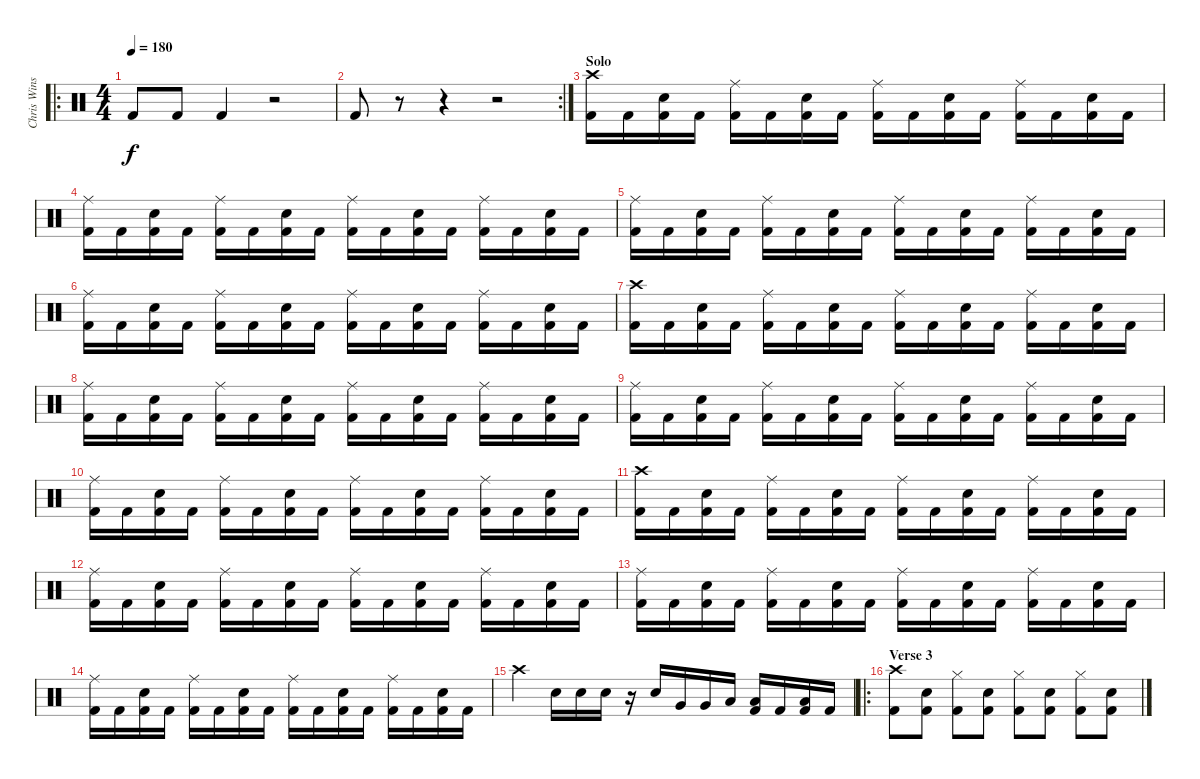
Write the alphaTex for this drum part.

\track ("Chris Winship (Drums)" "Chris Wins") {instrument percussion}
\staff {score}
\articulation defaults
\ro
\ts (4 4)
\tempo 180
\clef neutral
\ks c "Kick (hit) 2".8{dy f} "Kick (hit) 2".8 "Kick (hit) 2".4
r.2 |
\rc 2 "Kick (hit) 2".8
r.8 r.4 r.2 |
\section ("" "Solo")
("Crash high (hit)" "Kick (hit) 2").16 "Kick (hit) 2".16 ("Electric Snare (hit)" "Kick (hit) 2").16 "Kick (hit) 2".16 ("Ride (middle)" "Kick (hit) 2").16 "Kick (hit) 2".16 ("Electric Snare (hit)" "Kick (hit) 2").16 "Kick (hit) 2".16 ("Ride (middle)" "Kick (hit) 2").16 "Kick (hit) 2".16 ("Electric Snare (hit)" "Kick (hit) 2").16 "Kick (hit) 2".16 ("Ride (middle)" "Kick (hit) 2").16 "Kick (hit) 2".16 ("Electric Snare (hit)" "Kick (hit) 2").16 "Kick (hit) 2".16 |
("Ride (middle)" "Kick (hit) 2").16 "Kick (hit) 2".16 ("Electric Snare (hit)" "Kick (hit) 2").16 "Kick (hit) 2".16 ("Ride (middle)" "Kick (hit) 2").16 "Kick (hit) 2".16 ("Electric Snare (hit)" "Kick (hit) 2").16 "Kick (hit) 2".16 ("Ride (middle)" "Kick (hit) 2").16 "Kick (hit) 2".16 ("Electric Snare (hit)" "Kick (hit) 2").16 "Kick (hit) 2".16 ("Ride (middle)" "Kick (hit) 2").16 "Kick (hit) 2".16 ("Electric Snare (hit)" "Kick (hit) 2").16 "Kick (hit) 2".16 |
("Ride (middle)" "Kick (hit) 2").16 "Kick (hit) 2".16 ("Electric Snare (hit)" "Kick (hit) 2").16 "Kick (hit) 2".16 ("Ride (middle)" "Kick (hit) 2").16 "Kick (hit) 2".16 ("Electric Snare (hit)" "Kick (hit) 2").16 "Kick (hit) 2".16 ("Ride (middle)" "Kick (hit) 2").16 "Kick (hit) 2".16 ("Electric Snare (hit)" "Kick (hit) 2").16 "Kick (hit) 2".16 ("Ride (middle)" "Kick (hit) 2").16 "Kick (hit) 2".16 ("Electric Snare (hit)" "Kick (hit) 2").16 "Kick (hit) 2".16 |
("Ride (middle)" "Kick (hit) 2").16 "Kick (hit) 2".16 ("Electric Snare (hit)" "Kick (hit) 2").16 "Kick (hit) 2".16 ("Ride (middle)" "Kick (hit) 2").16 "Kick (hit) 2".16 ("Electric Snare (hit)" "Kick (hit) 2").16 "Kick (hit) 2".16 ("Ride (middle)" "Kick (hit) 2").16 "Kick (hit) 2".16 ("Electric Snare (hit)" "Kick (hit) 2").16 "Kick (hit) 2".16 ("Ride (middle)" "Kick (hit) 2").16 "Kick (hit) 2".16 ("Electric Snare (hit)" "Kick (hit) 2").16 "Kick (hit) 2".16 |
("Crash high (hit)" "Kick (hit) 2").16 "Kick (hit) 2".16 ("Electric Snare (hit)" "Kick (hit) 2").16 "Kick (hit) 2".16 ("Ride (middle)" "Kick (hit) 2").16 "Kick (hit) 2".16 ("Electric Snare (hit)" "Kick (hit) 2").16 "Kick (hit) 2".16 ("Ride (middle)" "Kick (hit) 2").16 "Kick (hit) 2".16 ("Electric Snare (hit)" "Kick (hit) 2").16 "Kick (hit) 2".16 ("Ride (middle)" "Kick (hit) 2").16 "Kick (hit) 2".16 ("Electric Snare (hit)" "Kick (hit) 2").16 "Kick (hit) 2".16 |
("Ride (middle)" "Kick (hit) 2").16 "Kick (hit) 2".16 ("Electric Snare (hit)" "Kick (hit) 2").16 "Kick (hit) 2".16 ("Ride (middle)" "Kick (hit) 2").16 "Kick (hit) 2".16 ("Electric Snare (hit)" "Kick (hit) 2").16 "Kick (hit) 2".16 ("Ride (middle)" "Kick (hit) 2").16 "Kick (hit) 2".16 ("Electric Snare (hit)" "Kick (hit) 2").16 "Kick (hit) 2".16 ("Ride (middle)" "Kick (hit) 2").16 "Kick (hit) 2".16 ("Electric Snare (hit)" "Kick (hit) 2").16 "Kick (hit) 2".16 |
("Ride (middle)" "Kick (hit) 2").16 "Kick (hit) 2".16 ("Electric Snare (hit)" "Kick (hit) 2").16 "Kick (hit) 2".16 ("Ride (middle)" "Kick (hit) 2").16 "Kick (hit) 2".16 ("Electric Snare (hit)" "Kick (hit) 2").16 "Kick (hit) 2".16 ("Ride (middle)" "Kick (hit) 2").16 "Kick (hit) 2".16 ("Electric Snare (hit)" "Kick (hit) 2").16 "Kick (hit) 2".16 ("Ride (middle)" "Kick (hit) 2").16 "Kick (hit) 2".16 ("Electric Snare (hit)" "Kick (hit) 2").16 "Kick (hit) 2".16 |
("Ride (middle)" "Kick (hit) 2").16 "Kick (hit) 2".16 ("Electric Snare (hit)" "Kick (hit) 2").16 "Kick (hit) 2".16 ("Ride (middle)" "Kick (hit) 2").16 "Kick (hit) 2".16 ("Electric Snare (hit)" "Kick (hit) 2").16 "Kick (hit) 2".16 ("Ride (middle)" "Kick (hit) 2").16 "Kick (hit) 2".16 ("Electric Snare (hit)" "Kick (hit) 2").16 "Kick (hit) 2".16 ("Ride (middle)" "Kick (hit) 2").16 "Kick (hit) 2".16 ("Electric Snare (hit)" "Kick (hit) 2").16 "Kick (hit) 2".16 |
("Crash high (hit)" "Kick (hit) 2").16 "Kick (hit) 2".16 ("Electric Snare (hit)" "Kick (hit) 2").16 "Kick (hit) 2".16 ("Ride (middle)" "Kick (hit) 2").16 "Kick (hit) 2".16 ("Electric Snare (hit)" "Kick (hit) 2").16 "Kick (hit) 2".16 ("Ride (middle)" "Kick (hit) 2").16 "Kick (hit) 2".16 ("Electric Snare (hit)" "Kick (hit) 2").16 "Kick (hit) 2".16 ("Ride (middle)" "Kick (hit) 2").16 "Kick (hit) 2".16 ("Electric Snare (hit)" "Kick (hit) 2").16 "Kick (hit) 2".16 |
("Ride (middle)" "Kick (hit) 2").16 "Kick (hit) 2".16 ("Electric Snare (hit)" "Kick (hit) 2").16 "Kick (hit) 2".16 ("Ride (middle)" "Kick (hit) 2").16 "Kick (hit) 2".16 ("Electric Snare (hit)" "Kick (hit) 2").16 "Kick (hit) 2".16 ("Ride (middle)" "Kick (hit) 2").16 "Kick (hit) 2".16 ("Electric Snare (hit)" "Kick (hit) 2").16 "Kick (hit) 2".16 ("Ride (middle)" "Kick (hit) 2").16 "Kick (hit) 2".16 ("Electric Snare (hit)" "Kick (hit) 2").16 "Kick (hit) 2".16 |
("Ride (middle)" "Kick (hit) 2").16 "Kick (hit) 2".16 ("Electric Snare (hit)" "Kick (hit) 2").16 "Kick (hit) 2".16 ("Ride (middle)" "Kick (hit) 2").16 "Kick (hit) 2".16 ("Electric Snare (hit)" "Kick (hit) 2").16 "Kick (hit) 2".16 ("Ride (middle)" "Kick (hit) 2").16 "Kick (hit) 2".16 ("Electric Snare (hit)" "Kick (hit) 2").16 "Kick (hit) 2".16 ("Ride (middle)" "Kick (hit) 2").16 "Kick (hit) 2".16 ("Electric Snare (hit)" "Kick (hit) 2").16 "Kick (hit) 2".16 |
("Ride (middle)" "Kick (hit) 2").16 "Kick (hit) 2".16 ("Electric Snare (hit)" "Kick (hit) 2").16 "Kick (hit) 2".16 ("Ride (middle)" "Kick (hit) 2").16 "Kick (hit) 2".16 ("Electric Snare (hit)" "Kick (hit) 2").16 "Kick (hit) 2".16 ("Ride (middle)" "Kick (hit) 2").16 "Kick (hit) 2".16 ("Electric Snare (hit)" "Kick (hit) 2").16 "Kick (hit) 2".16 ("Ride (middle)" "Kick (hit) 2").16 "Kick (hit) 2".16 ("Electric Snare (hit)" "Kick (hit) 2").16 "Kick (hit) 2".16 |
"Crash high (hit)".4 "Electric Snare (hit)".16 "Electric Snare (hit)".16 "Electric Snare (hit)".16 r.16 "Electric Snare (hit)".16 "Very Low Tom (hit)".16 "Very Low Tom (hit)".16 "Low Floor Tom (hit)".16 ("Low Floor Tom (hit)" "Kick (hit) 2").16 "Kick (hit) 2".16 ("Low Floor Tom (hit)" "Kick (hit) 2").16 "Kick (hit) 2".16 |
\ro
\section ("" "Verse 3")
("Crash high (hit)" "Kick (hit) 2").8 ("Electric Snare (hit)" "Kick (hit) 2").8 ("Hi-Hat (closed)" "Kick (hit) 2").8 ("Electric Snare (hit)" "Kick (hit) 2").8 ("Hi-Hat (closed)" "Kick (hit) 2").8 ("Electric Snare (hit)" "Kick (hit) 2").8 ("Hi-Hat (closed)" "Kick (hit) 2").8 ("Electric Snare (hit)" "Kick (hit) 2").8
